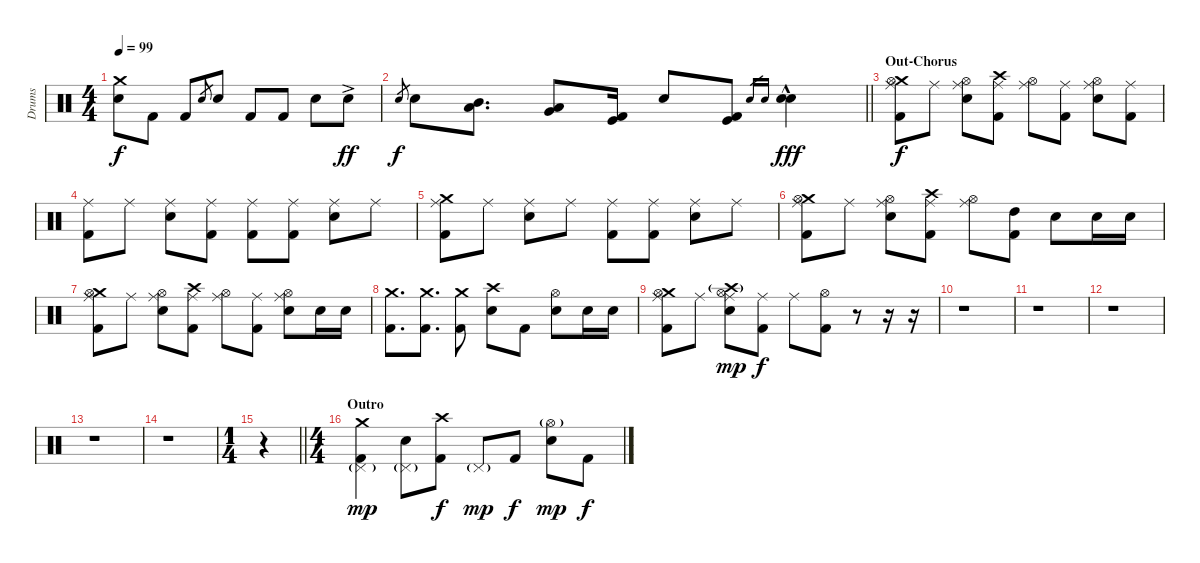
\track ("Drums" "Drums") {instrument percussion}
\staff {score}
\articulation defaults
\ts (4 4)
\tempo 99
\clef neutral
\ks c
("Crash medium (hit)" "Electric Snare (hit)").8{dy f} "Kick (hit) 2".8 "Kick (hit) 2".8 "Electric Snare (hit)".8{gr} "Electric Snare (hit)".8 "Kick (hit) 2".8 "Kick (hit) 2".8 "Electric Snare (hit)".8 "Electric Snare (hit)"{ac}.8{dy ff} |
\barLineRight lightlight "Electric Snare (hit)".8{gr dy f} "Electric Snare (hit)".8
("Mid Tom (hit)" "Low Tom (hit)").8{d} ("Very Low Tom (hit)" "Low Floor Tom (hit)").8 ("Kick (hit)" "Kick (hit) 2").16 "Electric Snare (hit)".8 ("Kick (hit)" "Kick (hit) 2").8 "Snare (hit) 2".16{gr} "Electric Snare (hit)".16{gr} ("Snare (hit) 2"{hac} "Electric Snare (hit)"{hac}).4{dy fff} |
\section ("" "Out-Chorus")
("Crash medium (hit)" "Kick (hit) 2" "Hi-Hat (open)" "Ride (middle)").8{dy f} "Ride (middle)".8 ("Electric Snare (hit)" "Hi-Hat (open)" "Ride (middle)").8 ("Crash high (hit)" "Kick (hit) 2" "Ride (middle)").8 ("Hi-Hat (open)" "Ride (middle)").8 ("Kick (hit) 2" "Ride (middle)").8 ("Electric Snare (hit)" "Hi-Hat (open)" "Ride (middle)").8 ("Kick (hit) 2" "Ride (middle)").8 |
("Kick (hit) 2" "Ride (middle)").8 "Ride (middle)".8 ("Electric Snare (hit)" "Ride (middle)").8 ("Kick (hit) 2" "Ride (middle)").8 ("Kick (hit) 2" "Ride (middle)").8 ("Kick (hit) 2" "Ride (middle)").8 ("Electric Snare (hit)" "Ride (middle)").8 "Ride (middle)".8 |
("Crash medium (hit)" "Kick (hit) 2" "Ride (middle)").8 "Ride (middle)".8 ("Electric Snare (hit)" "Ride (middle)").8 "Ride (middle)".8 ("Kick (hit) 2" "Ride (middle)").8 ("Kick (hit) 2" "Ride (middle)").8 ("Electric Snare (hit)" "Ride (middle)").8 "Ride (middle)".8 |
("Crash medium (hit)" "Kick (hit) 2" "Hi-Hat (open)" "Ride (middle)").8 "Ride (middle)".8 ("Electric Snare (hit)" "Hi-Hat (open)" "Ride (middle)").8 ("Crash high (hit)" "Kick (hit) 2" "Ride (middle)").8 ("Hi-Hat (open)" "Ride (middle)").8 ("High Tom (hit)" "Kick (hit) 2").8 "Electric Snare (hit)".8 "Electric Snare (hit)".16 "Electric Snare (hit)".16 |
("Crash medium (hit)" "Kick (hit) 2" "Hi-Hat (open)" "Ride (middle)").8 "Ride (middle)".8 ("Electric Snare (hit)" "Hi-Hat (open)" "Ride (middle)").8 ("Crash high (hit)" "Kick (hit) 2" "Ride (middle)").8 ("Hi-Hat (open)" "Ride (middle)").8 ("Kick (hit) 2" "Ride (middle)").8 ("Electric Snare (hit)" "Hi-Hat (open)" "Ride (middle)").8 "Electric Snare (hit)".16 "Electric Snare (hit)".16 |
("Crash medium (hit)" "Kick (hit) 2").8{d} ("Crash medium (hit)" "Kick (hit) 2").8{d} ("Crash medium (hit)" "Kick (hit) 2").8 ("Crash high (hit)" "Electric Snare (hit)").8 "Kick (hit) 2".8 ("Electric Snare (hit)" "Hi-Hat (open)").8 "Electric Snare (hit)".16 "Electric Snare (hit)".16 |
("Crash medium (hit)" "Kick (hit) 2" "Ride (middle)" "Hi-Hat (open)").8 "Ride (middle)".8 ("Crash high (hit)"{g} "Electric Snare (hit)" "Ride (middle)" "Hi-Hat (open)").8{dy mp} ("Kick (hit) 2" "Ride (middle)").8{dy f} "Ride (middle)".8 ("Kick (hit) 2" "Hi-Hat (open)").8 r.8 r.16 r.16 |
r.1 |
r.1 |
r.1 |
r.1 |
r.1 |
\ts (1 4)
\barLineRight lightlight
r.4{volume 16} |
\ts (4 4)
\section ("" "Outro")
("Crash medium (hit)" "Kick (hit) 2" "Pedal Hi-Hat (hit)"{g}).4{dy mp volume 8} ("Electric Snare (hit)" "Pedal Hi-Hat (hit)"{g}).8 ("Crash high (hit)" "Kick (hit) 2").8{dy f} "Pedal Hi-Hat (hit)"{g}.8{dy mp} "Kick (hit) 2".8{dy f} ("Electric Snare (hit)" "Hi-Hat (open)"{g}).8{dy mp} "Kick (hit) 2".8{dy f}
